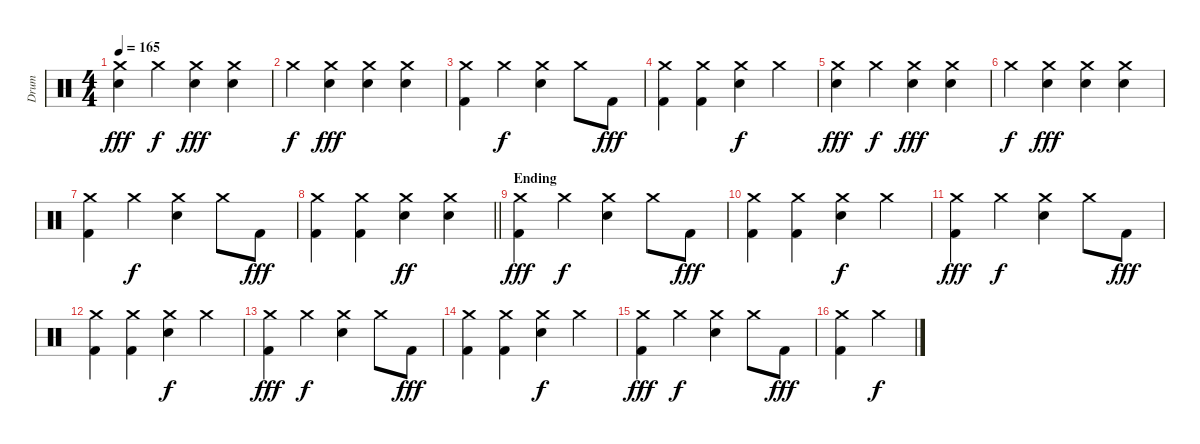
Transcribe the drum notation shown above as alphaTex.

\track ("Drum" "Drum") {instrument percussion}
\staff {score}
\articulation defaults
\ts (4 4)
\tempo 165
\clef neutral
\ks c
("Snare (hit) 2" "Crash medium (hit)").4{dy fff} "Crash medium (hit)".4{dy f} ("Snare (hit) 2" "Crash medium (hit)").4{dy fff} ("Snare (hit) 2" "Crash medium (hit)").4 |
"Crash medium (hit)".4{dy f} ("Snare (hit) 2" "Crash medium (hit)").4{dy fff} ("Snare (hit) 2" "Crash medium (hit)").4 ("Snare (hit) 2" "Crash medium (hit)").4 |
("Kick (hit) 2" "Crash medium (hit)").4 "Crash medium (hit)".4{dy f} ("Snare (hit) 2" "Crash medium (hit)").4 "Crash medium (hit)".8 "Kick (hit) 2".8{dy fff} |
("Kick (hit) 2" "Crash medium (hit)").4 ("Kick (hit) 2" "Crash medium (hit)").4 ("Snare (hit) 2" "Crash medium (hit)").4{dy f} "Crash medium (hit)".4 |
("Snare (hit) 2" "Crash medium (hit)").4{dy fff} "Crash medium (hit)".4{dy f} ("Snare (hit) 2" "Crash medium (hit)").4{dy fff} ("Snare (hit) 2" "Crash medium (hit)").4 |
"Crash medium (hit)".4{dy f} ("Snare (hit) 2" "Crash medium (hit)").4{dy fff} ("Snare (hit) 2" "Crash medium (hit)").4 ("Snare (hit) 2" "Crash medium (hit)").4 |
("Kick (hit) 2" "Crash medium (hit)").4 "Crash medium (hit)".4{dy f} ("Snare (hit) 2" "Crash medium (hit)").4 "Crash medium (hit)".8 "Kick (hit) 2".8{dy fff} |
\barLineRight lightlight
("Kick (hit) 2" "Crash medium (hit)").4 ("Kick (hit) 2" "Crash medium (hit)").4 ("Snare (hit) 2" "Crash medium (hit)").4{dy ff} ("Snare (hit) 2" "Crash medium (hit)").4 |
\section ("" "Ending")
("Kick (hit) 2" "Crash medium (hit)").4{dy fff} "Crash medium (hit)".4{dy f} ("Snare (hit) 2" "Crash medium (hit)").4 "Crash medium (hit)".8 "Kick (hit) 2".8{dy fff} |
("Kick (hit) 2" "Crash medium (hit)").4 ("Kick (hit) 2" "Crash medium (hit)").4 ("Snare (hit) 2" "Crash medium (hit)").4{dy f} "Crash medium (hit)".4 |
("Kick (hit) 2" "Crash medium (hit)").4{dy fff} "Crash medium (hit)".4{dy f} ("Snare (hit) 2" "Crash medium (hit)").4 "Crash medium (hit)".8 "Kick (hit) 2".8{dy fff} |
("Kick (hit) 2" "Crash medium (hit)").4 ("Kick (hit) 2" "Crash medium (hit)").4 ("Snare (hit) 2" "Crash medium (hit)").4{dy f} "Crash medium (hit)".4 |
("Kick (hit) 2" "Crash medium (hit)").4{dy fff} "Crash medium (hit)".4{dy f} ("Snare (hit) 2" "Crash medium (hit)").4 "Crash medium (hit)".8 "Kick (hit) 2".8{dy fff} |
("Kick (hit) 2" "Crash medium (hit)").4 ("Kick (hit) 2" "Crash medium (hit)").4 ("Snare (hit) 2" "Crash medium (hit)").4{dy f} "Crash medium (hit)".4 |
("Kick (hit) 2" "Crash medium (hit)").4{dy fff} "Crash medium (hit)".4{dy f} ("Snare (hit) 2" "Crash medium (hit)").4 "Crash medium (hit)".8 "Kick (hit) 2".8{dy fff} |
("Kick (hit) 2" "Crash medium (hit)").4 "Crash medium (hit)".4{dy f}
